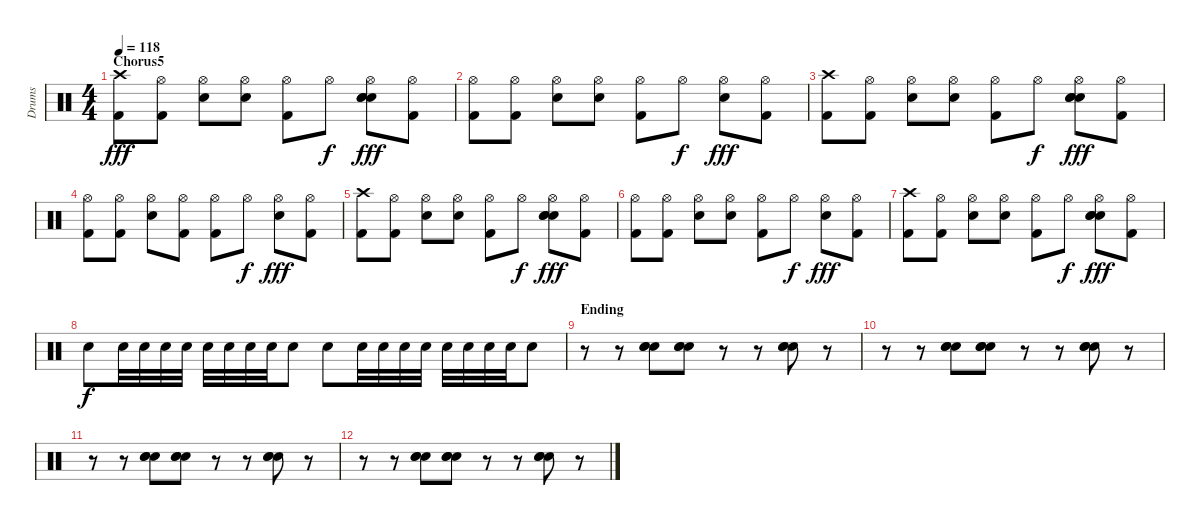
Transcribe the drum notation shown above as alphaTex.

\track ("Drums" "Drums") {instrument percussion}
\staff {score}
\articulation defaults
\ts (4 4)
\section ("" "Chorus5")
\tempo 118
\clef neutral
\ks c
("Crash high (hit)" "Kick (hit) 2").8{dy fff} ("Hi-Hat (open)" "Kick (hit) 2").8 ("Hi-Hat (open)" "Electric Snare (hit)").8 ("Hi-Hat (open)" "Electric Snare (hit)").8 ("Hi-Hat (open)" "Kick (hit) 2").8 "Hi-Hat (open)".8{dy f} ("Hi-Hat (open)" "Electric Snare (hit)" "Hand Clap (hit)" "Hand Clap (hit)").8{dy fff} ("Hi-Hat (open)" "Kick (hit) 2").8 |
("Hi-Hat (open)" "Kick (hit) 2").8 ("Hi-Hat (open)" "Kick (hit) 2").8 ("Hi-Hat (open)" "Electric Snare (hit)").8 ("Hi-Hat (open)" "Electric Snare (hit)").8 ("Hi-Hat (open)" "Kick (hit) 2").8 "Hi-Hat (open)".8{dy f} ("Hi-Hat (open)" "Electric Snare (hit)").8{dy fff} ("Hi-Hat (open)" "Kick (hit) 2").8 |
("Crash high (hit)" "Kick (hit) 2").8 ("Hi-Hat (open)" "Kick (hit) 2").8 ("Hi-Hat (open)" "Electric Snare (hit)").8 ("Hi-Hat (open)" "Electric Snare (hit)").8 ("Hi-Hat (open)" "Kick (hit) 2").8 "Hi-Hat (open)".8{dy f} ("Hi-Hat (open)" "Electric Snare (hit)" "Hand Clap (hit)" "Hand Clap (hit)").8{dy fff} ("Hi-Hat (open)" "Kick (hit) 2").8 |
("Hi-Hat (open)" "Kick (hit) 2").8 ("Hi-Hat (open)" "Kick (hit) 2").8 ("Hi-Hat (open)" "Electric Snare (hit)").8 ("Hi-Hat (open)" "Kick (hit) 2").8 ("Hi-Hat (open)" "Kick (hit) 2").8 "Hi-Hat (open)".8{dy f} ("Hi-Hat (open)" "Electric Snare (hit)").8{dy fff} ("Hi-Hat (open)" "Kick (hit) 2").8 |
("Crash high (hit)" "Kick (hit) 2").8 ("Hi-Hat (open)" "Kick (hit) 2").8 ("Hi-Hat (open)" "Electric Snare (hit)").8 ("Hi-Hat (open)" "Electric Snare (hit)").8 ("Hi-Hat (open)" "Kick (hit) 2").8 "Hi-Hat (open)".8{dy f} ("Hi-Hat (open)" "Electric Snare (hit)" "Hand Clap (hit)" "Hand Clap (hit)").8{dy fff} ("Hi-Hat (open)" "Kick (hit) 2").8 |
("Hi-Hat (open)" "Kick (hit) 2").8 ("Hi-Hat (open)" "Kick (hit) 2").8 ("Hi-Hat (open)" "Electric Snare (hit)").8 ("Hi-Hat (open)" "Electric Snare (hit)").8 ("Hi-Hat (open)" "Kick (hit) 2").8 "Hi-Hat (open)".8{dy f} ("Hi-Hat (open)" "Electric Snare (hit)").8{dy fff} ("Hi-Hat (open)" "Kick (hit) 2").8 |
("Crash high (hit)" "Kick (hit) 2").8 ("Hi-Hat (open)" "Kick (hit) 2").8 ("Hi-Hat (open)" "Electric Snare (hit)").8 ("Hi-Hat (open)" "Electric Snare (hit)").8 ("Hi-Hat (open)" "Kick (hit) 2").8 "Hi-Hat (open)".8{dy f} ("Hi-Hat (open)" "Electric Snare (hit)" "Hand Clap (hit)" "Hand Clap (hit)").8{dy fff} ("Hi-Hat (open)" "Kick (hit) 2").8 |
"Electric Snare (hit)".8{dy f} "Electric Snare (hit)".32 "Electric Snare (hit)".32 "Electric Snare (hit)".32 "Electric Snare (hit)".32 "Electric Snare (hit)".32 "Electric Snare (hit)".32 "Electric Snare (hit)".32 "Electric Snare (hit)".32 "Electric Snare (hit)".8 "Electric Snare (hit)".8 "Electric Snare (hit)".32 "Electric Snare (hit)".32 "Electric Snare (hit)".32 "Electric Snare (hit)".32 "Electric Snare (hit)".32 "Electric Snare (hit)".32 "Electric Snare (hit)".32 "Electric Snare (hit)".32 "Electric Snare (hit)".8 |
\section ("" "Ending")
r.8 r.8 ("Hand Clap (hit)" "Hand Clap (hit)" "Hand Clap (hit)").8 ("Hand Clap (hit)" "Hand Clap (hit)" "Hand Clap (hit)").8 r.8 r.8 ("Hand Clap (hit)" "Hand Clap (hit)" "Hand Clap (hit)").8 r.8 |
r.8 r.8 ("Hand Clap (hit)" "Hand Clap (hit)" "Hand Clap (hit)").8 ("Hand Clap (hit)" "Hand Clap (hit)" "Hand Clap (hit)").8 r.8 r.8 ("Hand Clap (hit)" "Hand Clap (hit)" "Hand Clap (hit)").8 r.8 |
r.8 r.8 ("Hand Clap (hit)" "Hand Clap (hit)" "Hand Clap (hit)").8 ("Hand Clap (hit)" "Hand Clap (hit)" "Hand Clap (hit)").8 r.8 r.8 ("Hand Clap (hit)" "Hand Clap (hit)" "Hand Clap (hit)").8 r.8 |
r.8 r.8 ("Hand Clap (hit)" "Hand Clap (hit)" "Hand Clap (hit)").8 ("Hand Clap (hit)" "Hand Clap (hit)" "Hand Clap (hit)").8 r.8 r.8 ("Hand Clap (hit)" "Hand Clap (hit)" "Hand Clap (hit)").8 r.8
